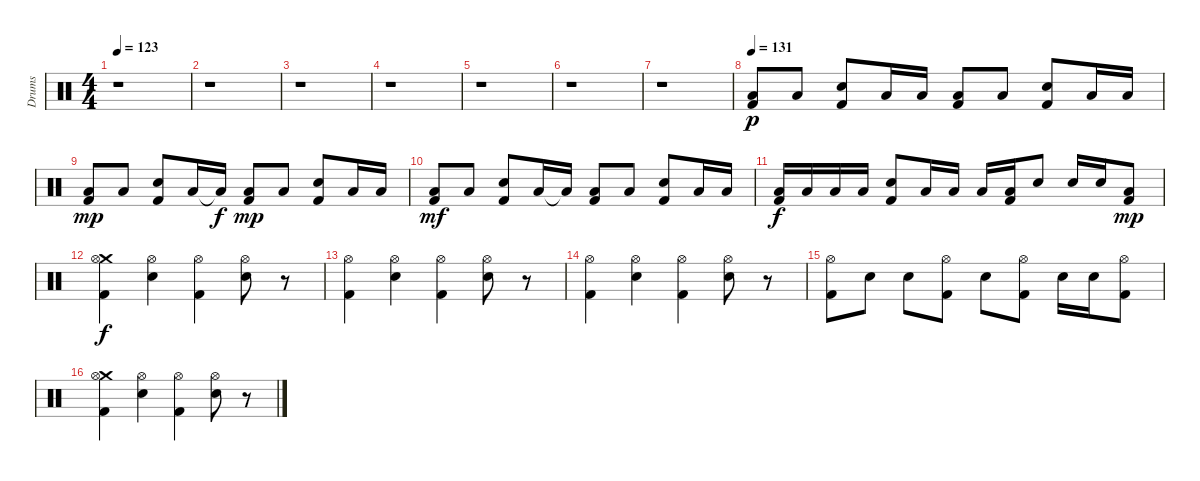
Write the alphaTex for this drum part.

\track ("Drums" "Drums") {instrument percussion}
\staff {score}
\articulation defaults
\ts (4 4)
\tempo 123
\clef neutral
\ks c
r.1{dy f} |
r.1 |
r.1 |
r.1 |
r.1 |
r.1 |
r.1 |
\tempo 131
("Low Tom (hit)" "Kick (hit) 2").8{dy p} "Low Tom (hit)".8 ("Electric Snare (hit)" "Kick (hit) 2").8 "Low Tom (hit)".16 "Low Tom (hit)".16 ("Low Tom (hit)" "Kick (hit) 2").8 "Low Tom (hit)".8 ("Electric Snare (hit)" "Kick (hit) 2").8 "Low Tom (hit)".16 "Low Tom (hit)".16 |
("Low Tom (hit)" "Kick (hit) 2").8{dy mp} "Low Tom (hit)".8 ("Electric Snare (hit)" "Kick (hit) 2").8 "Low Tom (hit)".16 "Low Tom (hit)"{t}.16{dy f} ("Low Tom (hit)" "Kick (hit) 2").8{dy mp} "Low Tom (hit)".8 ("Electric Snare (hit)" "Kick (hit) 2").8 "Low Tom (hit)".16 "Low Tom (hit)".16 |
("Low Tom (hit)" "Kick (hit) 2").8{dy mf} "Low Tom (hit)".8 ("Electric Snare (hit)" "Kick (hit) 2").8 "Low Tom (hit)".16 "Low Tom (hit)"{t}.16 ("Low Tom (hit)" "Kick (hit) 2").8 "Low Tom (hit)".8 ("Electric Snare (hit)" "Kick (hit) 2").8 "Low Tom (hit)".16 "Low Tom (hit)".16 |
("Low Tom (hit)" "Kick (hit) 2").16{dy f} "Low Tom (hit)".16 "Low Floor Tom (hit)".16 "Low Floor Tom (hit)".16 ("Electric Snare (hit)" "Kick (hit) 2").8 "Low Tom (hit)".16 "Low Tom (hit)".16 "Low Floor Tom (hit)".16 ("Low Floor Tom (hit)" "Kick (hit) 2").16 "Electric Snare (hit)".8 "Electric Snare (hit)".16 "Electric Snare (hit)".16 ("Low Floor Tom (hit)" "Kick (hit) 2").8{dy mp} |
("Crash medium (hit)" "Hi-Hat (open)" "Kick (hit) 2").4{dy f} ("Hi-Hat (open)" "Electric Snare (hit)").4 ("Hi-Hat (open)" "Kick (hit) 2").4 ("Hi-Hat (open)" "Electric Snare (hit)").8 r.8 |
("Hi-Hat (open)" "Kick (hit) 2").4 ("Hi-Hat (open)" "Electric Snare (hit)").4 ("Hi-Hat (open)" "Kick (hit) 2").4 ("Hi-Hat (open)" "Electric Snare (hit)").8 r.8 |
("Hi-Hat (open)" "Kick (hit) 2").4 ("Hi-Hat (open)" "Electric Snare (hit)").4 ("Hi-Hat (open)" "Kick (hit) 2").4 ("Hi-Hat (open)" "Electric Snare (hit)").8 r.8 |
("Hi-Hat (open)" "Kick (hit) 2").8 "Electric Snare (hit)".8 "Electric Snare (hit)".8 ("Hi-Hat (open)" "Kick (hit) 2").8 "Electric Snare (hit)".8 ("Hi-Hat (open)" "Kick (hit) 2").8 "Electric Snare (hit)".16 "Electric Snare (hit)".16 ("Hi-Hat (open)" "Kick (hit) 2").8 |
("Crash medium (hit)" "Hi-Hat (open)" "Kick (hit) 2").4 ("Hi-Hat (open)" "Electric Snare (hit)").4 ("Hi-Hat (open)" "Kick (hit) 2").4 ("Hi-Hat (open)" "Electric Snare (hit)").8 r.8
